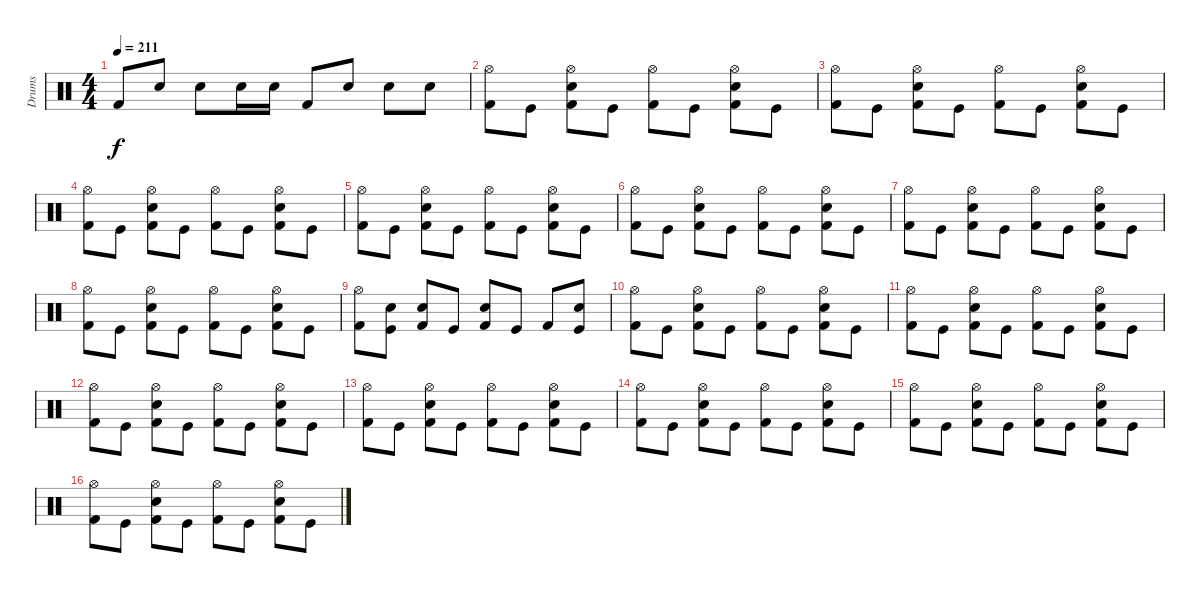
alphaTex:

\track ("Drums" "Drums") {instrument percussion}
\staff {score}
\articulation defaults
\ts (4 4)
\tempo 211
\clef neutral
\ks c "Kick (hit) 2".8{dy f} "Snare (hit) 2".8 "Snare (hit) 2".8 "Snare (hit) 2".16 "Snare (hit) 2".16 "Kick (hit) 2".8 "Snare (hit) 2".8 "Snare (hit) 2".8 "Snare (hit) 2".8
|
("Kick (hit) 2" "Hi-Hat (open)").8 "Kick (hit)".8 ("Kick (hit) 2" "Snare (hit) 2" "Hi-Hat (open)").8 "Kick (hit)".8 ("Kick (hit) 2" "Hi-Hat (open)").8 "Kick (hit)".8 ("Kick (hit) 2" "Snare (hit) 2" "Hi-Hat (open)").8 "Kick (hit)".8 |
("Kick (hit) 2" "Hi-Hat (open)").8 "Kick (hit)".8 ("Kick (hit) 2" "Snare (hit) 2" "Hi-Hat (open)").8 "Kick (hit)".8 ("Kick (hit) 2" "Hi-Hat (open)").8 "Kick (hit)".8 ("Kick (hit) 2" "Snare (hit) 2" "Hi-Hat (open)").8 "Kick (hit)".8 |
("Kick (hit) 2" "Hi-Hat (open)").8 "Kick (hit)".8 ("Kick (hit) 2" "Snare (hit) 2" "Hi-Hat (open)").8 "Kick (hit)".8 ("Kick (hit) 2" "Hi-Hat (open)").8 "Kick (hit)".8 ("Kick (hit) 2" "Snare (hit) 2" "Hi-Hat (open)").8 "Kick (hit)".8 |
("Kick (hit) 2" "Hi-Hat (open)").8 "Kick (hit)".8 ("Kick (hit) 2" "Snare (hit) 2" "Hi-Hat (open)").8 "Kick (hit)".8 ("Kick (hit) 2" "Hi-Hat (open)").8 "Kick (hit)".8 ("Kick (hit) 2" "Snare (hit) 2" "Hi-Hat (open)").8 "Kick (hit)".8 |
("Kick (hit) 2" "Hi-Hat (open)").8 "Kick (hit)".8 ("Kick (hit) 2" "Snare (hit) 2" "Hi-Hat (open)").8 "Kick (hit)".8 ("Kick (hit) 2" "Hi-Hat (open)").8 "Kick (hit)".8 ("Kick (hit) 2" "Snare (hit) 2" "Hi-Hat (open)").8 "Kick (hit)".8 |
("Kick (hit) 2" "Hi-Hat (open)").8 "Kick (hit)".8 ("Kick (hit) 2" "Snare (hit) 2" "Hi-Hat (open)").8 "Kick (hit)".8 ("Kick (hit) 2" "Hi-Hat (open)").8 "Kick (hit)".8 ("Kick (hit) 2" "Snare (hit) 2" "Hi-Hat (open)").8 "Kick (hit)".8 |
("Kick (hit) 2" "Hi-Hat (open)").8 "Kick (hit)".8 ("Kick (hit) 2" "Snare (hit) 2" "Hi-Hat (open)").8 "Kick (hit)".8 ("Kick (hit) 2" "Hi-Hat (open)").8 "Kick (hit)".8 ("Kick (hit) 2" "Snare (hit) 2" "Hi-Hat (open)").8 "Kick (hit)".8 |
("Kick (hit) 2" "Hi-Hat (open)").8 ("Kick (hit)" "Snare (hit) 2").8 ("Kick (hit) 2" "Snare (hit) 2").8 "Kick (hit)".8 ("Kick (hit) 2" "Snare (hit) 2").8 "Kick (hit)".8 "Kick (hit) 2".8 ("Kick (hit)" "Snare (hit) 2").8 |
("Kick (hit) 2" "Hi-Hat (open)").8 "Kick (hit)".8 ("Kick (hit) 2" "Snare (hit) 2" "Hi-Hat (open)").8 "Kick (hit)".8 ("Kick (hit) 2" "Hi-Hat (open)").8 "Kick (hit)".8 ("Kick (hit) 2" "Snare (hit) 2" "Hi-Hat (open)").8 "Kick (hit)".8 |
("Kick (hit) 2" "Hi-Hat (open)").8 "Kick (hit)".8 ("Kick (hit) 2" "Snare (hit) 2" "Hi-Hat (open)").8 "Kick (hit)".8 ("Kick (hit) 2" "Hi-Hat (open)").8 "Kick (hit)".8 ("Kick (hit) 2" "Snare (hit) 2" "Hi-Hat (open)").8 "Kick (hit)".8 |
("Kick (hit) 2" "Hi-Hat (open)").8 "Kick (hit)".8 ("Kick (hit) 2" "Snare (hit) 2" "Hi-Hat (open)").8 "Kick (hit)".8 ("Kick (hit) 2" "Hi-Hat (open)").8 "Kick (hit)".8 ("Kick (hit) 2" "Snare (hit) 2" "Hi-Hat (open)").8 "Kick (hit)".8 |
("Kick (hit) 2" "Hi-Hat (open)").8 "Kick (hit)".8 ("Kick (hit) 2" "Snare (hit) 2" "Hi-Hat (open)").8 "Kick (hit)".8 ("Kick (hit) 2" "Hi-Hat (open)").8 "Kick (hit)".8 ("Kick (hit) 2" "Snare (hit) 2" "Hi-Hat (open)").8 "Kick (hit)".8 |
("Kick (hit) 2" "Hi-Hat (open)").8 "Kick (hit)".8 ("Kick (hit) 2" "Snare (hit) 2" "Hi-Hat (open)").8 "Kick (hit)".8 ("Kick (hit) 2" "Hi-Hat (open)").8 "Kick (hit)".8 ("Kick (hit) 2" "Snare (hit) 2" "Hi-Hat (open)").8 "Kick (hit)".8 |
("Kick (hit) 2" "Hi-Hat (open)").8 "Kick (hit)".8 ("Kick (hit) 2" "Snare (hit) 2" "Hi-Hat (open)").8 "Kick (hit)".8 ("Kick (hit) 2" "Hi-Hat (open)").8 "Kick (hit)".8 ("Kick (hit) 2" "Snare (hit) 2" "Hi-Hat (open)").8 "Kick (hit)".8 |
("Kick (hit) 2" "Hi-Hat (open)").8 "Kick (hit)".8 ("Kick (hit) 2" "Snare (hit) 2" "Hi-Hat (open)").8 "Kick (hit)".8 ("Kick (hit) 2" "Hi-Hat (open)").8 "Kick (hit)".8 ("Kick (hit) 2" "Snare (hit) 2" "Hi-Hat (open)").8 "Kick (hit)".8
